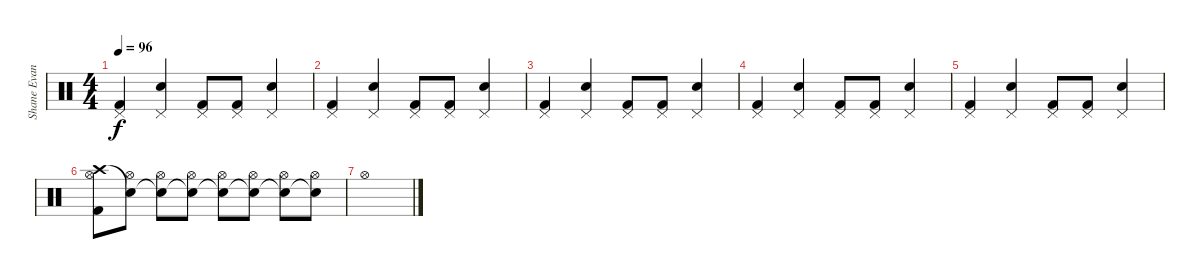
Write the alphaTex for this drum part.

\track ("Shane Evans" "Shane Evan") {instrument percussion}
\staff {score}
\articulation defaults
\ts (4 4)
\tempo 96
\clef neutral
\ks c
("Pedal Hi-Hat (hit)" "Kick (hit) 2").4{dy f} ("Pedal Hi-Hat (hit)" "Snare (hit) 2").4 ("Pedal Hi-Hat (hit)" "Kick (hit) 2").8 ("Pedal Hi-Hat (hit)" "Kick (hit) 2").8 ("Pedal Hi-Hat (hit)" "Snare (hit) 2").4 |
("Pedal Hi-Hat (hit)" "Kick (hit) 2").4 ("Pedal Hi-Hat (hit)" "Snare (hit) 2").4 ("Pedal Hi-Hat (hit)" "Kick (hit) 2").8 ("Pedal Hi-Hat (hit)" "Kick (hit) 2").8 ("Pedal Hi-Hat (hit)" "Snare (hit) 2").4 |
("Pedal Hi-Hat (hit)" "Kick (hit) 2").4 ("Pedal Hi-Hat (hit)" "Snare (hit) 2").4 ("Pedal Hi-Hat (hit)" "Kick (hit) 2").8 ("Pedal Hi-Hat (hit)" "Kick (hit) 2").8 ("Pedal Hi-Hat (hit)" "Snare (hit) 2").4 |
("Pedal Hi-Hat (hit)" "Kick (hit) 2").4 ("Pedal Hi-Hat (hit)" "Snare (hit) 2").4 ("Pedal Hi-Hat (hit)" "Kick (hit) 2").8 ("Pedal Hi-Hat (hit)" "Kick (hit) 2").8 ("Pedal Hi-Hat (hit)" "Snare (hit) 2").4 |
("Pedal Hi-Hat (hit)" "Kick (hit) 2").4 ("Pedal Hi-Hat (hit)" "Snare (hit) 2").4 ("Pedal Hi-Hat (hit)" "Kick (hit) 2").8 ("Pedal Hi-Hat (hit)" "Kick (hit) 2").8 ("Pedal Hi-Hat (hit)" "Snare (hit) 2").4 |
("Crash high (hit)" "Hi-Hat (open)" "Kick (hit) 2").8 ("Snare (hit)"{t} "Hi-Hat (open)").8 ("Snare (hit)"{t} "Hi-Hat (open)").8 ("Snare (hit)"{t} "Hi-Hat (open)").8 ("Snare (hit)"{t} "Hi-Hat (open)").8 ("Snare (hit)"{t} "Hi-Hat (open)").8 ("Snare (hit)"{t} "Hi-Hat (open)").8 ("Snare (hit)"{t} "Hi-Hat (open)").8 |
"Hi-Hat (open)".1
